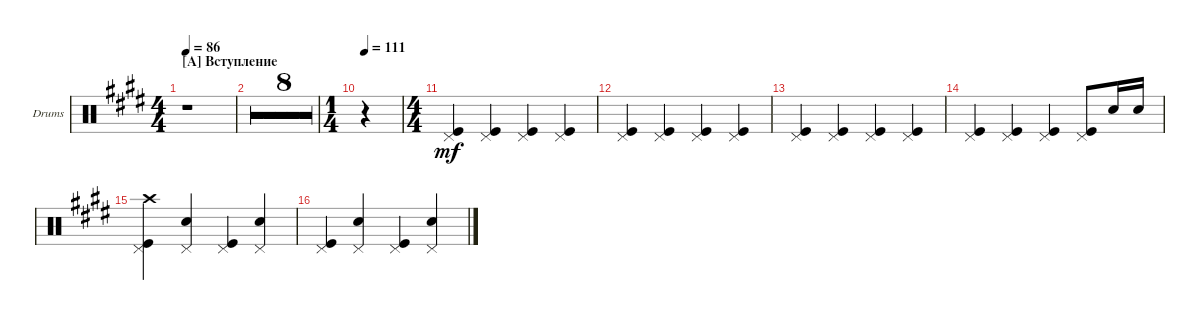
\defaultSystemsLayout 4
\bracketExtendMode groupsimilarinstruments
\firstSystemTrackNameOrientation horizontal
\otherSystemsTrackNameOrientation horizontal
\track ("Drumkit" "Drums") {multiBarRest instrument percussion}
\staff {score}
\articulation defaults
\ts (4 4)
\section ("A" "Вступление")
\tempo 86
\clef neutral
\ks e
r.1{dy mf} |
r.1 |
r.1 |
r.1 |
r.1 |
r.1 |
r.1 |
r.1 |
r.1 |
\ts (1 4)
\tempo 111
r.4 |
\ts (4 4)
("Kick (hit)" "Pedal Hi-Hat (hit)").4 ("Kick (hit)" "Pedal Hi-Hat (hit)").4 ("Kick (hit)" "Pedal Hi-Hat (hit)").4 ("Kick (hit)" "Pedal Hi-Hat (hit)").4 |
("Kick (hit)" "Pedal Hi-Hat (hit)").4 ("Kick (hit)" "Pedal Hi-Hat (hit)").4 ("Kick (hit)" "Pedal Hi-Hat (hit)").4 ("Kick (hit)" "Pedal Hi-Hat (hit)").4 |
("Kick (hit)" "Pedal Hi-Hat (hit)").4 ("Kick (hit)" "Pedal Hi-Hat (hit)").4 ("Kick (hit)" "Pedal Hi-Hat (hit)").4 ("Kick (hit)" "Pedal Hi-Hat (hit)").4 |
("Kick (hit)" "Pedal Hi-Hat (hit)").4 ("Kick (hit)" "Pedal Hi-Hat (hit)").4 ("Kick (hit)" "Pedal Hi-Hat (hit)").4 ("Pedal Hi-Hat (hit)" "Kick (hit)").8 "Snare (hit) 2".16 "Snare (hit) 2".16 |
("Kick (hit)" "Pedal Hi-Hat (hit)" "Crash high (hit)").4 ("Snare (hit) 2" "Pedal Hi-Hat (hit)").4 ("Kick (hit)" "Pedal Hi-Hat (hit)").4 ("Snare (hit) 2" "Pedal Hi-Hat (hit)").4 |
("Kick (hit)" "Pedal Hi-Hat (hit)").4 ("Snare (hit) 2" "Pedal Hi-Hat (hit)").4 ("Kick (hit)" "Pedal Hi-Hat (hit)").4 ("Snare (hit) 2" "Pedal Hi-Hat (hit)").4
